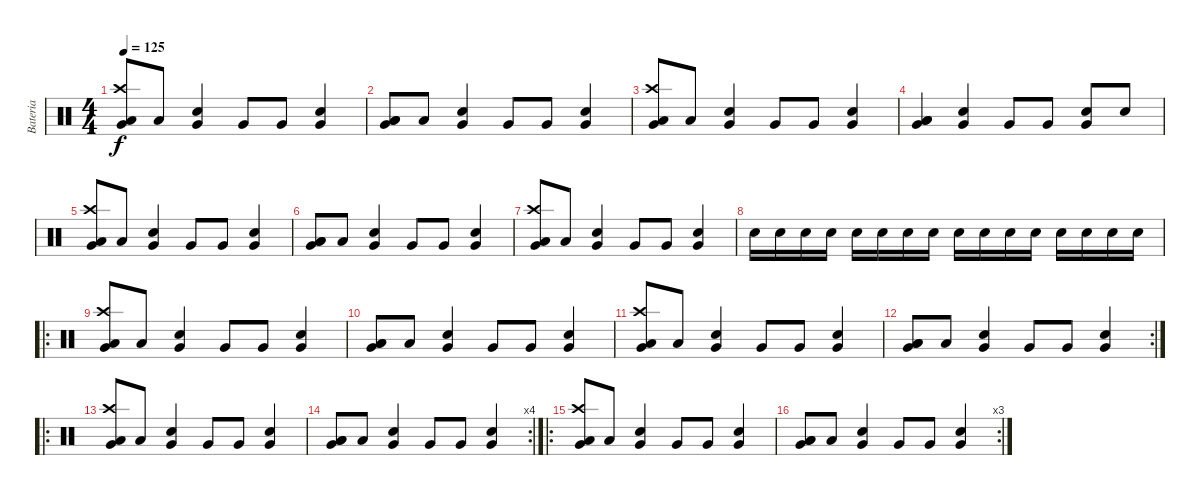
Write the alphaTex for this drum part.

\track ("Bateria" "Bateria") {instrument percussion}
\staff {score}
\articulation defaults
\ts (4 4)
\tempo 125
\clef neutral
\ks c
("Low Tom (hit)" "Crash high (hit)" "Very Low Tom (hit)").8{dy f} "Low Floor Tom (hit)".8 ("Electric Snare (hit)" "Very Low Tom (hit)").4 "Very Low Tom (hit)".8 "Very Low Tom (hit)".8 ("Electric Snare (hit)" "Very Low Tom (hit)").4 |
("Low Tom (hit)" "Low Floor Tom (hit)" "Very Low Tom (hit)").8 "Low Floor Tom (hit)".8 ("Electric Snare (hit)" "Very Low Tom (hit)").4 "Very Low Tom (hit)".8 "Very Low Tom (hit)".8 ("Electric Snare (hit)" "Very Low Tom (hit)").4 |
("Low Tom (hit)" "Crash high (hit)" "Very Low Tom (hit)").8 "Low Floor Tom (hit)".8 ("Electric Snare (hit)" "Very Low Tom (hit)").4 "Very Low Tom (hit)".8 "Very Low Tom (hit)".8 ("Electric Snare (hit)" "Very Low Tom (hit)").4 |
("Low Tom (hit)" "Low Floor Tom (hit)" "Very Low Tom (hit)").4 ("Electric Snare (hit)" "Very Low Tom (hit)").4 "Very Low Tom (hit)".8 "Very Low Tom (hit)".8 ("Electric Snare (hit)" "Very Low Tom (hit)").8 "Snare (hit) 2".8 |
("Low Tom (hit)" "Crash high (hit)" "Very Low Tom (hit)").8 "Low Floor Tom (hit)".8 ("Electric Snare (hit)" "Very Low Tom (hit)").4 "Very Low Tom (hit)".8 "Very Low Tom (hit)".8 ("Electric Snare (hit)" "Very Low Tom (hit)").4 |
("Low Tom (hit)" "Low Floor Tom (hit)" "Very Low Tom (hit)").8 "Low Floor Tom (hit)".8 ("Electric Snare (hit)" "Very Low Tom (hit)").4 "Very Low Tom (hit)".8 "Very Low Tom (hit)".8 ("Electric Snare (hit)" "Very Low Tom (hit)").4 |
("Low Tom (hit)" "Crash high (hit)" "Very Low Tom (hit)").8 "Low Floor Tom (hit)".8 ("Electric Snare (hit)" "Very Low Tom (hit)").4 "Very Low Tom (hit)".8 "Very Low Tom (hit)".8 ("Electric Snare (hit)" "Very Low Tom (hit)").4 |
"Electric Snare (hit)".16 "Electric Snare (hit)".16 "Electric Snare (hit)".16 "Electric Snare (hit)".16 "Electric Snare (hit)".16 "Electric Snare (hit)".16 "Electric Snare (hit)".16 "Electric Snare (hit)".16 "Electric Snare (hit)".16 "Electric Snare (hit)".16 "Electric Snare (hit)".16 "Electric Snare (hit)".16 "Electric Snare (hit)".16 "Electric Snare (hit)".16 "Electric Snare (hit)".16 "Electric Snare (hit)".16 |
\ro
("Low Tom (hit)" "Crash high (hit)" "Very Low Tom (hit)").8 "Low Floor Tom (hit)".8 ("Electric Snare (hit)" "Very Low Tom (hit)").4 "Very Low Tom (hit)".8 "Very Low Tom (hit)".8 ("Electric Snare (hit)" "Very Low Tom (hit)").4 |
("Low Tom (hit)" "Low Floor Tom (hit)" "Very Low Tom (hit)").8 "Low Floor Tom (hit)".8 ("Electric Snare (hit)" "Very Low Tom (hit)").4 "Very Low Tom (hit)".8 "Very Low Tom (hit)".8 ("Electric Snare (hit)" "Very Low Tom (hit)").4 |
("Low Tom (hit)" "Crash high (hit)" "Very Low Tom (hit)").8 "Low Floor Tom (hit)".8 ("Electric Snare (hit)" "Very Low Tom (hit)").4 "Very Low Tom (hit)".8 "Very Low Tom (hit)".8 ("Electric Snare (hit)" "Very Low Tom (hit)").4 |
\rc 2
("Low Tom (hit)" "Low Floor Tom (hit)" "Very Low Tom (hit)").8 "Low Floor Tom (hit)".8 ("Electric Snare (hit)" "Very Low Tom (hit)").4 "Very Low Tom (hit)".8 "Very Low Tom (hit)".8 ("Electric Snare (hit)" "Very Low Tom (hit)").4 |
\ro
("Low Tom (hit)" "Crash high (hit)" "Very Low Tom (hit)").8 "Low Floor Tom (hit)".8 ("Electric Snare (hit)" "Very Low Tom (hit)").4 "Very Low Tom (hit)".8 "Very Low Tom (hit)".8 ("Electric Snare (hit)" "Very Low Tom (hit)").4 |
\rc 4
("Low Tom (hit)" "Low Floor Tom (hit)" "Very Low Tom (hit)").8 "Low Floor Tom (hit)".8 ("Electric Snare (hit)" "Very Low Tom (hit)").4 "Very Low Tom (hit)".8 "Very Low Tom (hit)".8 ("Electric Snare (hit)" "Very Low Tom (hit)").4 |
\ro
("Low Tom (hit)" "Crash high (hit)" "Very Low Tom (hit)").8 "Low Floor Tom (hit)".8 ("Electric Snare (hit)" "Very Low Tom (hit)").4 "Very Low Tom (hit)".8 "Very Low Tom (hit)".8 ("Electric Snare (hit)" "Very Low Tom (hit)").4 |
\rc 3
("Low Tom (hit)" "Low Floor Tom (hit)" "Very Low Tom (hit)").8 "Low Floor Tom (hit)".8 ("Electric Snare (hit)" "Very Low Tom (hit)").4 "Very Low Tom (hit)".8 "Very Low Tom (hit)".8 ("Electric Snare (hit)" "Very Low Tom (hit)").4
